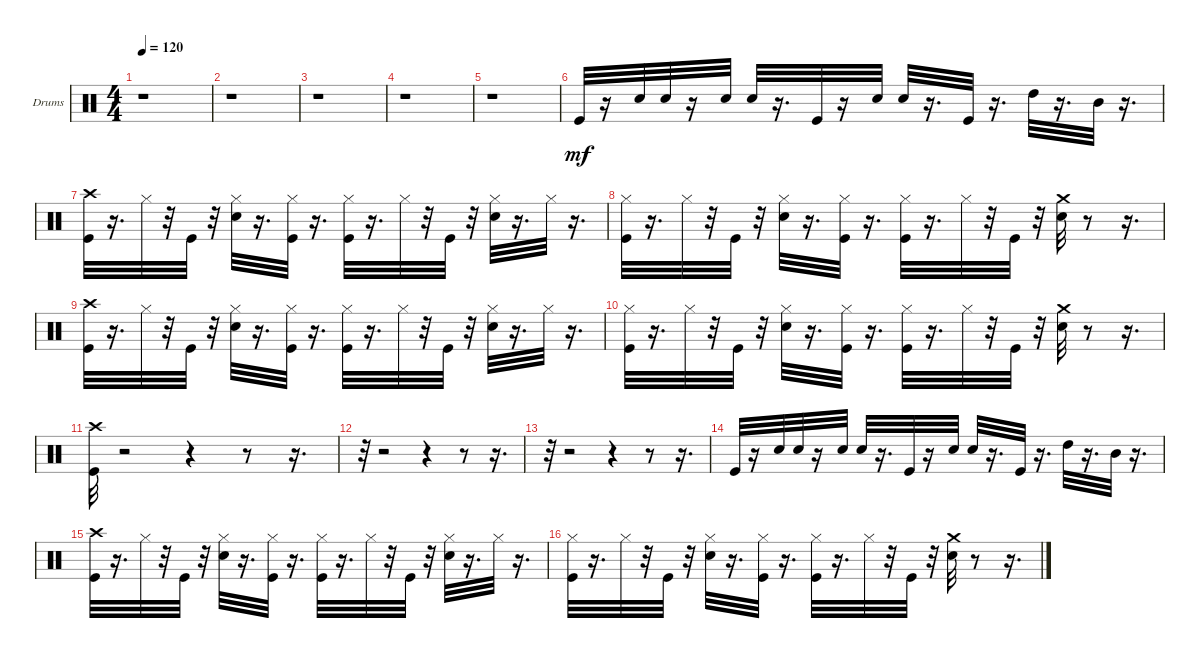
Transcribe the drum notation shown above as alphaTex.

\bracketExtendMode groupsimilarinstruments
\firstSystemTrackNameOrientation horizontal
\otherSystemsTrackNameOrientation horizontal
\track ("" "Drums") {instrument percussion}
\staff {score}
\articulation defaults
\ts (4 4)
\tempo 120
\clef neutral
\ks c
r.1{dy mf} |
r.1 |
r.1 |
r.1 |
r.1 |
"Kick (hit)".32 r.16 "Snare (hit) 2".32 "Snare (hit) 2".32 r.16 "Snare (hit) 2".32 "Snare (hit) 2".32 r.16{d} "Kick (hit)".32 r.16 "Snare (hit) 2".32 "Snare (hit) 2".32 r.16{d} "Kick (hit)".32 r.16{d} "High Tom (hit)".32 r.16{d} "Mid Tom (hit)".32 r.16{d} |
("Crash high (hit)" "Kick (hit)").32 r.16{d} "Hi-Hat (closed)".32 r.32 "Kick (hit)".32 r.32 ("Hi-Hat (closed)" "Snare (hit) 2").32 r.16{d} ("Hi-Hat (closed)" "Kick (hit)").32 r.16{d} ("Hi-Hat (closed)" "Kick (hit)").32 r.16{d} "Hi-Hat (closed)".32 r.32 "Kick (hit)".32 r.32 ("Hi-Hat (closed)" "Snare (hit) 2").32 r.16{d} "Hi-Hat (closed)".32 r.16{d} |
("Hi-Hat (closed)" "Kick (hit)").32 r.16{d} "Hi-Hat (closed)".32 r.32 "Kick (hit)".32 r.32 ("Hi-Hat (closed)" "Snare (hit) 2").32 r.16{d} ("Hi-Hat (closed)" "Kick (hit)").32 r.16{d} ("Hi-Hat (closed)" "Kick (hit)").32 r.16{d} "Hi-Hat (closed)".32 r.32 "Kick (hit)".32 r.32 ("Crash medium (hit)" "Snare (hit) 2").32 r.8 r.16{d} |
("Crash high (hit)" "Kick (hit)").32 r.16{d} "Hi-Hat (closed)".32 r.32 "Kick (hit)".32 r.32 ("Hi-Hat (closed)" "Snare (hit) 2").32 r.16{d} ("Hi-Hat (closed)" "Kick (hit)").32 r.16{d} ("Hi-Hat (closed)" "Kick (hit)").32 r.16{d} "Hi-Hat (closed)".32 r.32 "Kick (hit)".32 r.32 ("Hi-Hat (closed)" "Snare (hit) 2").32 r.16{d} "Hi-Hat (closed)".32 r.16{d} |
("Hi-Hat (closed)" "Kick (hit)").32 r.16{d} "Hi-Hat (closed)".32 r.32 "Kick (hit)".32 r.32 ("Hi-Hat (closed)" "Snare (hit) 2").32 r.16{d} ("Hi-Hat (closed)" "Kick (hit)").32 r.16{d} ("Hi-Hat (closed)" "Kick (hit)").32 r.16{d} "Hi-Hat (closed)".32 r.32 "Kick (hit)".32 r.32 ("Crash medium (hit)" "Snare (hit) 2").32 r.8 r.16{d} |
("Crash high (hit)" "Kick (hit)").32 r.2 r.4 r.8 r.16{d} |
r.32 r.2 r.4 r.8 r.16{d} |
r.32 r.2 r.4 r.8 r.16{d} |
"Kick (hit)".32 r.16 "Snare (hit) 2".32 "Snare (hit) 2".32 r.16 "Snare (hit) 2".32 "Snare (hit) 2".32 r.16{d} "Kick (hit)".32 r.16 "Snare (hit) 2".32 "Snare (hit) 2".32 r.16{d} "Kick (hit)".32 r.16{d} "High Tom (hit)".32 r.16{d} "Mid Tom (hit)".32 r.16{d} |
("Crash high (hit)" "Kick (hit)").32 r.16{d} "Hi-Hat (closed)".32 r.32 "Kick (hit)".32 r.32 ("Hi-Hat (closed)" "Snare (hit) 2").32 r.16{d} ("Hi-Hat (closed)" "Kick (hit)").32 r.16{d} ("Hi-Hat (closed)" "Kick (hit)").32 r.16{d} "Hi-Hat (closed)".32 r.32 "Kick (hit)".32 r.32 ("Hi-Hat (closed)" "Snare (hit) 2").32 r.16{d} "Hi-Hat (closed)".32 r.16{d} |
("Hi-Hat (closed)" "Kick (hit)").32 r.16{d} "Hi-Hat (closed)".32 r.32 "Kick (hit)".32 r.32 ("Hi-Hat (closed)" "Snare (hit) 2").32 r.16{d} ("Hi-Hat (closed)" "Kick (hit)").32 r.16{d} ("Hi-Hat (closed)" "Kick (hit)").32 r.16{d} "Hi-Hat (closed)".32 r.32 "Kick (hit)".32 r.32 ("Crash medium (hit)" "Snare (hit) 2").32 r.8 r.16{d}
